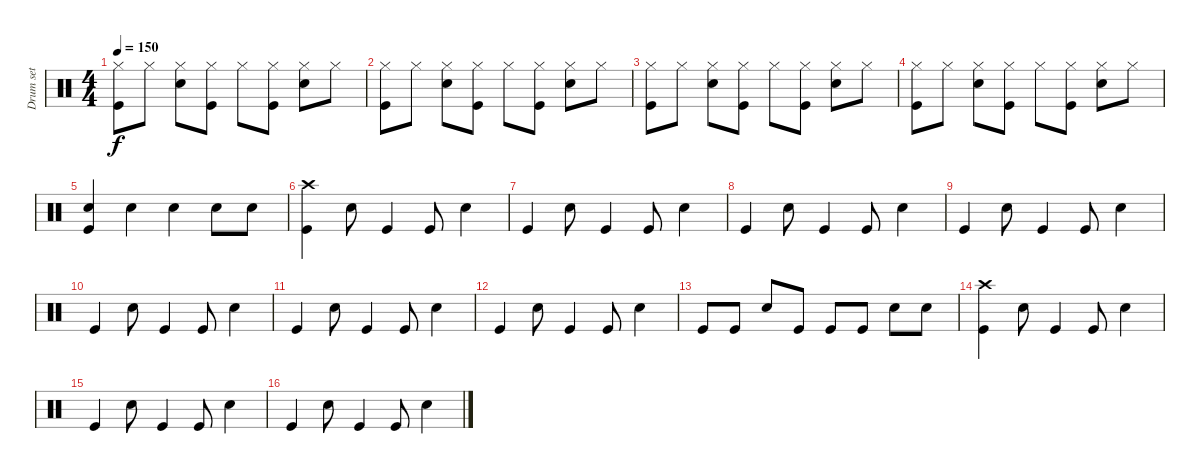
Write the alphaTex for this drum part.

\track ("Drum set" "Drum set") {instrument percussion}
\staff {score}
\articulation defaults
\ts (4 4)
\tempo 150
\clef neutral
\ks c
("Hi-Hat (closed)" "Kick (hit)").8{dy f} "Hi-Hat (closed)".8 ("Hi-Hat (closed)" "Snare (hit) 2").8 ("Hi-Hat (closed)" "Kick (hit)").8 "Hi-Hat (closed)".8 ("Hi-Hat (closed)" "Kick (hit)").8 ("Hi-Hat (closed)" "Snare (hit) 2").8 "Hi-Hat (closed)".8 |
("Hi-Hat (closed)" "Kick (hit)").8 "Hi-Hat (closed)".8 ("Hi-Hat (closed)" "Snare (hit) 2").8 ("Hi-Hat (closed)" "Kick (hit)").8 "Hi-Hat (closed)".8 ("Hi-Hat (closed)" "Kick (hit)").8 ("Hi-Hat (closed)" "Snare (hit) 2").8 "Hi-Hat (closed)".8 |
("Hi-Hat (closed)" "Kick (hit)").8 "Hi-Hat (closed)".8 ("Hi-Hat (closed)" "Snare (hit) 2").8 ("Hi-Hat (closed)" "Kick (hit)").8 "Hi-Hat (closed)".8 ("Hi-Hat (closed)" "Kick (hit)").8 ("Hi-Hat (closed)" "Snare (hit) 2").8 "Hi-Hat (closed)".8 |
("Hi-Hat (closed)" "Kick (hit)").8 "Hi-Hat (closed)".8 ("Hi-Hat (closed)" "Snare (hit) 2").8 ("Hi-Hat (closed)" "Kick (hit)").8 "Hi-Hat (closed)".8 ("Hi-Hat (closed)" "Kick (hit)").8 ("Hi-Hat (closed)" "Snare (hit) 2").8 "Hi-Hat (closed)".8 |
("Snare (hit) 2" "Kick (hit)").4 "Snare (hit) 2".4 "Snare (hit) 2".4 "Snare (hit) 2".8 "Snare (hit) 2".8 |
("Crash high (hit)" "Kick (hit)").4 "Snare (hit) 2".8 "Kick (hit)".4 "Kick (hit)".8 "Snare (hit) 2".4 |
"Kick (hit)".4 "Snare (hit) 2".8 "Kick (hit)".4 "Kick (hit)".8 "Snare (hit) 2".4 |
"Kick (hit)".4 "Snare (hit) 2".8 "Kick (hit)".4 "Kick (hit)".8 "Snare (hit) 2".4 |
"Kick (hit)".4 "Snare (hit) 2".8 "Kick (hit)".4 "Kick (hit)".8 "Snare (hit) 2".4 |
"Kick (hit)".4 "Snare (hit) 2".8 "Kick (hit)".4 "Kick (hit)".8 "Snare (hit) 2".4 |
"Kick (hit)".4 "Snare (hit) 2".8 "Kick (hit)".4 "Kick (hit)".8 "Snare (hit) 2".4 |
"Kick (hit)".4 "Snare (hit) 2".8 "Kick (hit)".4 "Kick (hit)".8 "Snare (hit) 2".4 |
"Kick (hit)".8 "Kick (hit)".8 "Snare (hit) 2".8 "Kick (hit)".8 "Kick (hit)".8 "Kick (hit)".8 "Snare (hit) 2".8 "Snare (hit) 2".8 |
("Crash high (hit)" "Kick (hit)").4 "Snare (hit) 2".8 "Kick (hit)".4 "Kick (hit)".8 "Snare (hit) 2".4 |
"Kick (hit)".4 "Snare (hit) 2".8 "Kick (hit)".4 "Kick (hit)".8 "Snare (hit) 2".4 |
"Kick (hit)".4 "Snare (hit) 2".8 "Kick (hit)".4 "Kick (hit)".8 "Snare (hit) 2".4
